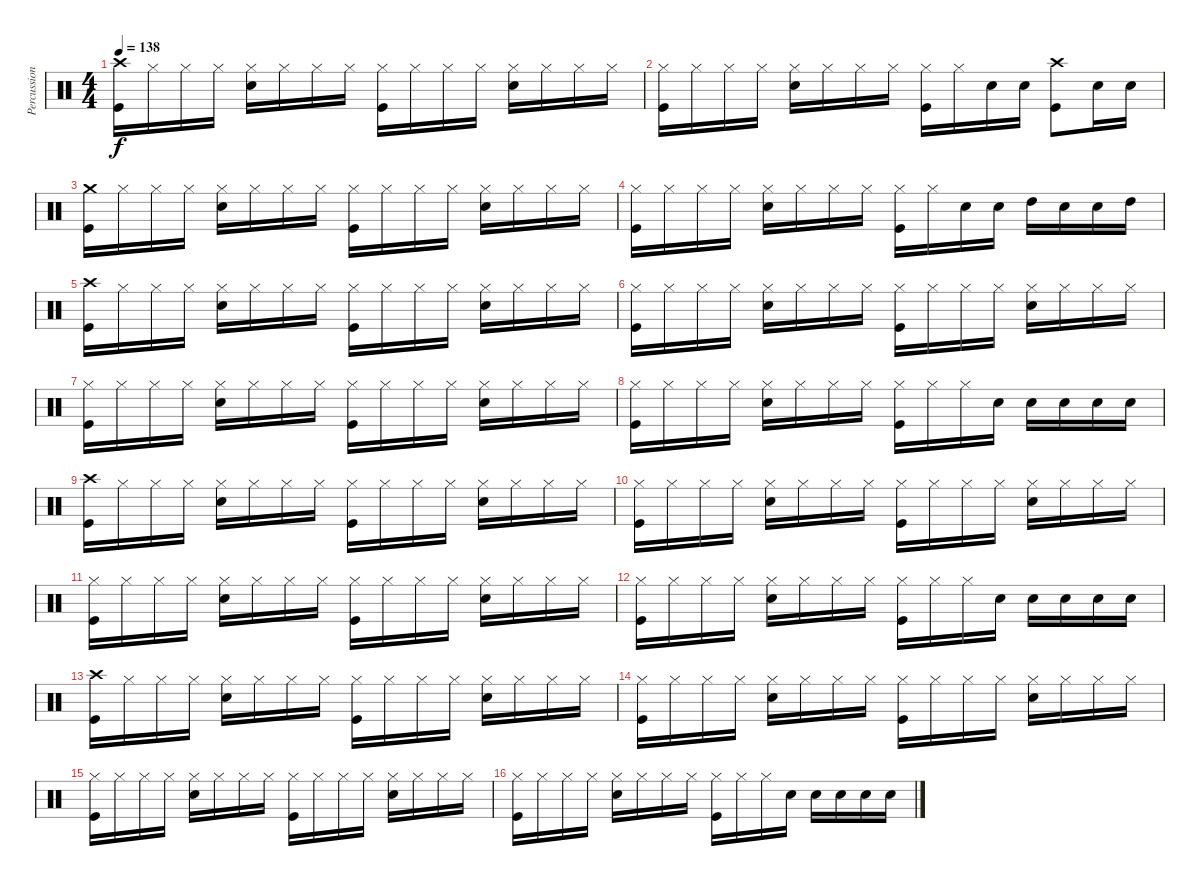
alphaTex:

\track ("Percussion" "Percussion") {instrument percussion}
\staff {score}
\articulation defaults
\ts (4 4)
\tempo 138
\clef neutral
\ks c
("Kick (hit)" "Crash high (hit)").16{dy f} "Hi-Hat (closed)".16 "Hi-Hat (closed)".16 "Hi-Hat (closed)".16 ("Snare (hit) 2" "Hi-Hat (closed)").16 "Hi-Hat (closed)".16 "Hi-Hat (closed)".16 "Hi-Hat (closed)".16 ("Kick (hit)" "Hi-Hat (closed)").16 "Hi-Hat (closed)".16 "Hi-Hat (closed)".16 "Hi-Hat (closed)".16 ("Snare (hit) 2" "Hi-Hat (closed)").16 "Hi-Hat (closed)".16 "Hi-Hat (closed)".16 "Hi-Hat (closed)".16 |
("Kick (hit)" "Hi-Hat (closed)").16 "Hi-Hat (closed)".16 "Hi-Hat (closed)".16 "Hi-Hat (closed)".16 ("Snare (hit) 2" "Hi-Hat (closed)").16 "Hi-Hat (closed)".16 "Hi-Hat (closed)".16 "Hi-Hat (closed)".16 ("Kick (hit)" "Hi-Hat (closed)").16 "Hi-Hat (closed)".16 "Snare (hit) 2".16 "Snare (hit) 2".16 ("Crash high (hit)" "Kick (hit)").8 "Snare (hit) 2".16 "Snare (hit) 2".16 |
("Kick (hit)" "Crash medium (hit)").16 "Hi-Hat (closed)".16 "Hi-Hat (closed)".16 "Hi-Hat (closed)".16 ("Snare (hit) 2" "Hi-Hat (closed)").16 "Hi-Hat (closed)".16 "Hi-Hat (closed)".16 "Hi-Hat (closed)".16 ("Kick (hit)" "Hi-Hat (closed)").16 "Hi-Hat (closed)".16 "Hi-Hat (closed)".16 "Hi-Hat (closed)".16 ("Snare (hit) 2" "Hi-Hat (closed)").16 "Hi-Hat (closed)".16 "Hi-Hat (closed)".16 "Hi-Hat (closed)".16 |
("Kick (hit)" "Hi-Hat (closed)").16 "Hi-Hat (closed)".16 "Hi-Hat (closed)".16 "Hi-Hat (closed)".16 ("Snare (hit) 2" "Hi-Hat (closed)").16 "Hi-Hat (closed)".16 "Hi-Hat (closed)".16 "Hi-Hat (closed)".16 ("Kick (hit)" "Hi-Hat (closed)").16 "Hi-Hat (closed)".16 "Snare (hit) 2".16 "Snare (hit) 2".16 "High Tom (hit)".16 "Snare (hit) 2".16 "Snare (hit) 2".16 "High Tom (hit)".16 |
("Kick (hit)" "Crash high (hit)").16 "Hi-Hat (closed)".16 "Hi-Hat (closed)".16 "Hi-Hat (closed)".16 ("Snare (hit) 2" "Hi-Hat (closed)").16 "Hi-Hat (closed)".16 "Hi-Hat (closed)".16 "Hi-Hat (closed)".16 ("Kick (hit)" "Hi-Hat (closed)").16 "Hi-Hat (closed)".16 "Hi-Hat (closed)".16 "Hi-Hat (closed)".16 ("Snare (hit) 2" "Hi-Hat (closed)").16 "Hi-Hat (closed)".16 "Hi-Hat (closed)".16 "Hi-Hat (closed)".16 |
("Kick (hit)" "Hi-Hat (closed)").16 "Hi-Hat (closed)".16 "Hi-Hat (closed)".16 "Hi-Hat (closed)".16 ("Snare (hit) 2" "Hi-Hat (closed)").16 "Hi-Hat (closed)".16 "Hi-Hat (closed)".16 "Hi-Hat (closed)".16 ("Kick (hit)" "Hi-Hat (closed)").16 "Hi-Hat (closed)".16 "Hi-Hat (closed)".16 "Hi-Hat (closed)".16 ("Snare (hit) 2" "Hi-Hat (closed)").16 "Hi-Hat (closed)".16 "Hi-Hat (closed)".16 "Hi-Hat (closed)".16 |
("Kick (hit)" "Hi-Hat (closed)").16 "Hi-Hat (closed)".16 "Hi-Hat (closed)".16 "Hi-Hat (closed)".16 ("Snare (hit) 2" "Hi-Hat (closed)").16 "Hi-Hat (closed)".16 "Hi-Hat (closed)".16 "Hi-Hat (closed)".16 ("Kick (hit)" "Hi-Hat (closed)").16 "Hi-Hat (closed)".16 "Hi-Hat (closed)".16 "Hi-Hat (closed)".16 ("Snare (hit) 2" "Hi-Hat (closed)").16 "Hi-Hat (closed)".16 "Hi-Hat (closed)".16 "Hi-Hat (closed)".16 |
("Kick (hit)" "Hi-Hat (closed)").16 "Hi-Hat (closed)".16 "Hi-Hat (closed)".16 "Hi-Hat (closed)".16 ("Snare (hit) 2" "Hi-Hat (closed)").16 "Hi-Hat (closed)".16 "Hi-Hat (closed)".16 "Hi-Hat (closed)".16 ("Kick (hit)" "Hi-Hat (closed)").16 "Hi-Hat (closed)".16 "Hi-Hat (closed)".16 "Snare (hit) 2".16 "Snare (hit) 2".16 "Snare (hit) 2".16 "Snare (hit) 2".16 "Snare (hit) 2".16 |
("Kick (hit)" "Crash high (hit)").16 "Hi-Hat (closed)".16 "Hi-Hat (closed)".16 "Hi-Hat (closed)".16 ("Snare (hit) 2" "Hi-Hat (closed)").16 "Hi-Hat (closed)".16 "Hi-Hat (closed)".16 "Hi-Hat (closed)".16 ("Kick (hit)" "Hi-Hat (closed)").16 "Hi-Hat (closed)".16 "Hi-Hat (closed)".16 "Hi-Hat (closed)".16 ("Snare (hit) 2" "Hi-Hat (closed)").16 "Hi-Hat (closed)".16 "Hi-Hat (closed)".16 "Hi-Hat (closed)".16 |
("Kick (hit)" "Hi-Hat (closed)").16 "Hi-Hat (closed)".16 "Hi-Hat (closed)".16 "Hi-Hat (closed)".16 ("Snare (hit) 2" "Hi-Hat (closed)").16 "Hi-Hat (closed)".16 "Hi-Hat (closed)".16 "Hi-Hat (closed)".16 ("Kick (hit)" "Hi-Hat (closed)").16 "Hi-Hat (closed)".16 "Hi-Hat (closed)".16 "Hi-Hat (closed)".16 ("Snare (hit) 2" "Hi-Hat (closed)").16 "Hi-Hat (closed)".16 "Hi-Hat (closed)".16 "Hi-Hat (closed)".16 |
("Kick (hit)" "Hi-Hat (closed)").16 "Hi-Hat (closed)".16 "Hi-Hat (closed)".16 "Hi-Hat (closed)".16 ("Snare (hit) 2" "Hi-Hat (closed)").16 "Hi-Hat (closed)".16 "Hi-Hat (closed)".16 "Hi-Hat (closed)".16 ("Kick (hit)" "Hi-Hat (closed)").16 "Hi-Hat (closed)".16 "Hi-Hat (closed)".16 "Hi-Hat (closed)".16 ("Snare (hit) 2" "Hi-Hat (closed)").16 "Hi-Hat (closed)".16 "Hi-Hat (closed)".16 "Hi-Hat (closed)".16 |
("Kick (hit)" "Hi-Hat (closed)").16 "Hi-Hat (closed)".16 "Hi-Hat (closed)".16 "Hi-Hat (closed)".16 ("Snare (hit) 2" "Hi-Hat (closed)").16 "Hi-Hat (closed)".16 "Hi-Hat (closed)".16 "Hi-Hat (closed)".16 ("Kick (hit)" "Hi-Hat (closed)").16 "Hi-Hat (closed)".16 "Hi-Hat (closed)".16 "Snare (hit) 2".16 "Snare (hit) 2".16 "Snare (hit) 2".16 "Snare (hit) 2".16 "Snare (hit) 2".16 |
("Kick (hit)" "Crash high (hit)").16 "Hi-Hat (closed)".16 "Hi-Hat (closed)".16 "Hi-Hat (closed)".16 ("Snare (hit) 2" "Hi-Hat (closed)").16 "Hi-Hat (closed)".16 "Hi-Hat (closed)".16 "Hi-Hat (closed)".16 ("Kick (hit)" "Hi-Hat (closed)").16 "Hi-Hat (closed)".16 "Hi-Hat (closed)".16 "Hi-Hat (closed)".16 ("Snare (hit) 2" "Hi-Hat (closed)").16 "Hi-Hat (closed)".16 "Hi-Hat (closed)".16 "Hi-Hat (closed)".16 |
("Kick (hit)" "Hi-Hat (closed)").16 "Hi-Hat (closed)".16 "Hi-Hat (closed)".16 "Hi-Hat (closed)".16 ("Snare (hit) 2" "Hi-Hat (closed)").16 "Hi-Hat (closed)".16 "Hi-Hat (closed)".16 "Hi-Hat (closed)".16 ("Kick (hit)" "Hi-Hat (closed)").16 "Hi-Hat (closed)".16 "Hi-Hat (closed)".16 "Hi-Hat (closed)".16 ("Snare (hit) 2" "Hi-Hat (closed)").16 "Hi-Hat (closed)".16 "Hi-Hat (closed)".16 "Hi-Hat (closed)".16 |
("Kick (hit)" "Hi-Hat (closed)").16 "Hi-Hat (closed)".16 "Hi-Hat (closed)".16 "Hi-Hat (closed)".16 ("Snare (hit) 2" "Hi-Hat (closed)").16 "Hi-Hat (closed)".16 "Hi-Hat (closed)".16 "Hi-Hat (closed)".16 ("Kick (hit)" "Hi-Hat (closed)").16 "Hi-Hat (closed)".16 "Hi-Hat (closed)".16 "Hi-Hat (closed)".16 ("Snare (hit) 2" "Hi-Hat (closed)").16 "Hi-Hat (closed)".16 "Hi-Hat (closed)".16 "Hi-Hat (closed)".16 |
("Kick (hit)" "Hi-Hat (closed)").16 "Hi-Hat (closed)".16 "Hi-Hat (closed)".16 "Hi-Hat (closed)".16 ("Snare (hit) 2" "Hi-Hat (closed)").16 "Hi-Hat (closed)".16 "Hi-Hat (closed)".16 "Hi-Hat (closed)".16 ("Kick (hit)" "Hi-Hat (closed)").16 "Hi-Hat (closed)".16 "Hi-Hat (closed)".16 "Snare (hit) 2".16 "Snare (hit) 2".16 "Snare (hit) 2".16 "Snare (hit) 2".16 "Snare (hit) 2".16
